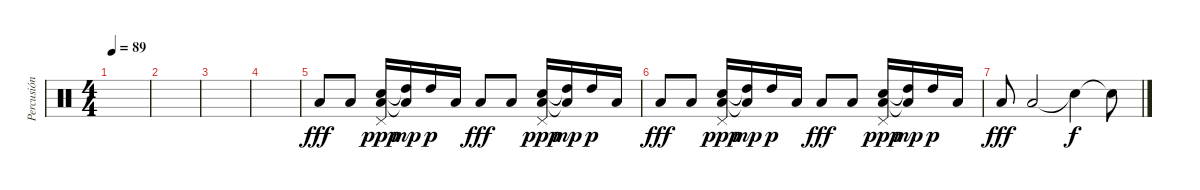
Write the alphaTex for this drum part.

\track ("Percusión" "Percusión") {instrument percussion}
\staff {score}
\articulation defaults
\ts (4 4)
\tempo 89
\clef neutral
\ks c
|
|
|
|
"Low Floor Tom (hit)".8{dy fff} "Low Floor Tom (hit)".8 ("Electric Snare (hit)" "Low Floor Tom (hit)" "Pedal Hi-Hat (hit)").16{dy ppp} ("High Tom (hit)"{t} "Low Floor Tom (hit)"{t}).16{dy mp} "High Tom (hit)".16{dy p} "Low Tom (hit)".16 "Low Floor Tom (hit)".8{dy fff} "Low Floor Tom (hit)".8 ("Electric Snare (hit)" "Low Floor Tom (hit)" "Pedal Hi-Hat (hit)").16{dy ppp} ("High Tom (hit)"{t} "Low Floor Tom (hit)"{t}).16{dy mp} "High Tom (hit)".16{dy p} "Low Tom (hit)".16 |
"Low Floor Tom (hit)".8{dy fff} "Low Floor Tom (hit)".8 ("Electric Snare (hit)" "Low Floor Tom (hit)" "Pedal Hi-Hat (hit)").16{dy ppp} ("High Tom (hit)"{t} "Low Floor Tom (hit)"{t}).16{dy mp} "High Tom (hit)".16{dy p} "Low Tom (hit)".16 "Low Floor Tom (hit)".8{dy fff} "Low Floor Tom (hit)".8 ("Electric Snare (hit)" "Low Floor Tom (hit)" "Pedal Hi-Hat (hit)").16{dy ppp} ("High Tom (hit)"{t} "Low Floor Tom (hit)"{t}).16{dy mp} "High Tom (hit)".16{dy p} "Low Tom (hit)".16 |
"Low Floor Tom (hit)".8{dy fff} "Low Floor Tom (hit)".2 "Snare (hit)"{t}.4{dy f} "Snare (hit)"{t}.8
